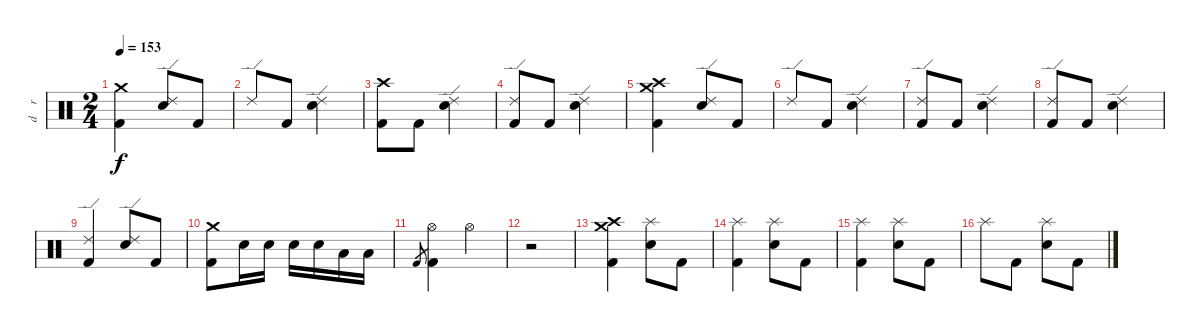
\track ("d    r     u    m    s" "d    r    ") {instrument percussion}
\staff {score}
\articulation defaults
\ts (2 4)
\tempo 153
\clef neutral
\ks c
("Crash medium (hit)" "Kick (hit) 2").4{dy f} ("Ride (edge) 2" "Electric Snare (hit)").8 "Kick (hit) 2".8 |
"Ride (edge) 2".8 "Kick (hit) 2".8 ("Ride (edge) 2" "Electric Snare (hit)").4 |
("Crash high (hit)" "Kick (hit) 2").8 "Kick (hit) 2".8 ("Ride (edge) 2" "Electric Snare (hit)").4 |
("Ride (edge) 2" "Kick (hit) 2").8 "Kick (hit) 2".8 ("Ride (edge) 2" "Electric Snare (hit)").4 |
("Crash high (hit)" "Crash medium (hit)" "Kick (hit) 2").4 ("Ride (edge) 2" "Electric Snare (hit)").8 "Kick (hit) 2".8 |
"Ride (edge) 2".8 "Kick (hit) 2".8 ("Ride (edge) 2" "Electric Snare (hit)").4 |
("Ride (edge) 2" "Kick (hit) 2").8 "Kick (hit) 2".8 ("Ride (edge) 2" "Electric Snare (hit)").4 |
("Ride (edge) 2" "Kick (hit) 2").8 "Kick (hit) 2".8 ("Ride (edge) 2" "Electric Snare (hit)").4 |
("Ride (edge) 2" "Kick (hit) 2").4 ("Ride (edge) 2" "Electric Snare (hit)").8 "Kick (hit) 2".8 |
("Crash medium (hit)" "Kick (hit) 2").8 "Electric Snare (hit)".16 "Electric Snare (hit)".16 "Electric Snare (hit)".16 "Electric Snare (hit)".16 "Low Tom (hit)".16 "Low Tom (hit)".16 |
"Kick (hit) 2".8{gr} ("Hi-Hat (open)" "Kick (hit) 2").4 "Hi-Hat (open)".4 |
r.2 |
("Crash high (hit)" "Crash medium (hit)" "Kick (hit) 2").4 ("Splash (hit)" "Electric Snare (hit)").8 "Kick (hit) 2".8 |
("Splash (hit)" "Kick (hit) 2").4 ("Splash (hit)" "Electric Snare (hit)").8 "Kick (hit) 2".8 |
("Splash (hit)" "Kick (hit) 2").4 ("Splash (hit)" "Electric Snare (hit)").8 "Kick (hit) 2".8 |
"Splash (hit)".8 "Kick (hit) 2".8 ("Splash (hit)" "Electric Snare (hit)").8 "Kick (hit) 2".8
